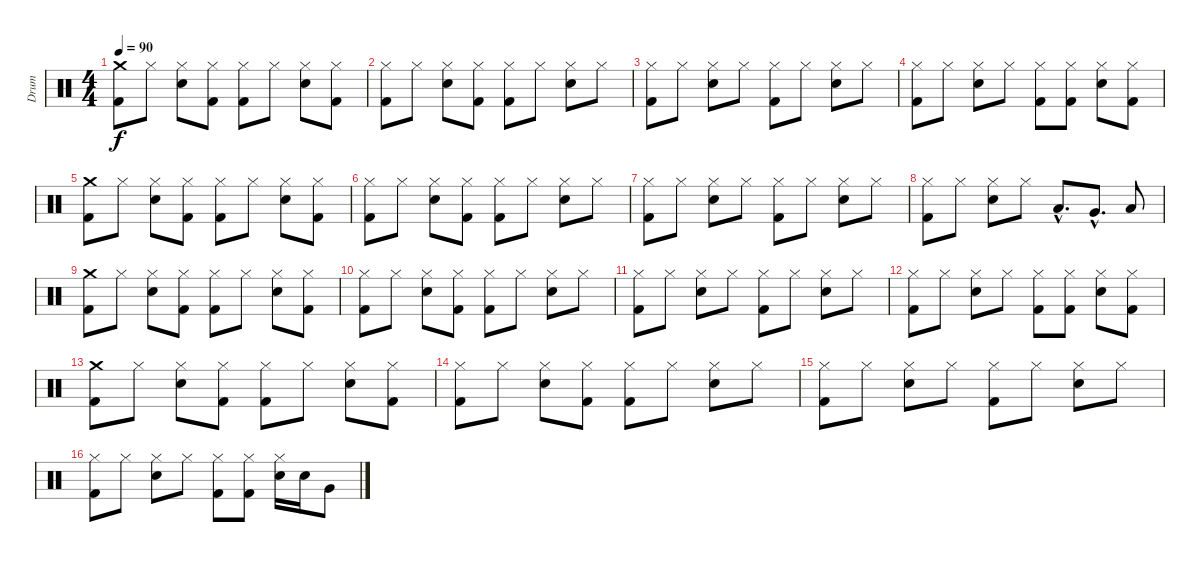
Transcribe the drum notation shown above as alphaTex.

\track ("Drum" "Drum") {instrument percussion}
\staff {score}
\articulation defaults
\ts (4 4)
\tempo 90
\clef neutral
\ks c
("Crash medium (hit)" "Kick (hit) 2").8{dy f} "Hi-Hat (closed)".8 ("Hi-Hat (closed)" "Snare (hit) 2").8 ("Hi-Hat (closed)" "Kick (hit) 2").8 ("Hi-Hat (closed)" "Kick (hit) 2").8 "Hi-Hat (closed)".8 ("Hi-Hat (closed)" "Snare (hit) 2").8 ("Hi-Hat (closed)" "Kick (hit) 2").8 |
("Hi-Hat (closed)" "Kick (hit) 2").8 "Hi-Hat (closed)".8 ("Hi-Hat (closed)" "Snare (hit) 2").8 ("Hi-Hat (closed)" "Kick (hit) 2").8 ("Hi-Hat (closed)" "Kick (hit) 2").8 "Hi-Hat (closed)".8 ("Hi-Hat (closed)" "Snare (hit) 2").8 "Hi-Hat (closed)".8 |
("Hi-Hat (closed)" "Kick (hit) 2").8 "Hi-Hat (closed)".8 ("Hi-Hat (closed)" "Snare (hit) 2").8 "Hi-Hat (closed)".8 ("Hi-Hat (closed)" "Kick (hit) 2").8 "Hi-Hat (closed)".8 ("Hi-Hat (closed)" "Snare (hit) 2").8 "Hi-Hat (closed)".8 |
("Hi-Hat (closed)" "Kick (hit) 2").8 "Hi-Hat (closed)".8 ("Hi-Hat (closed)" "Snare (hit) 2").8 "Hi-Hat (closed)".8 ("Hi-Hat (closed)" "Kick (hit) 2").8 ("Hi-Hat (closed)" "Kick (hit) 2").8 ("Hi-Hat (closed)" "Snare (hit) 2").8 ("Hi-Hat (closed)" "Kick (hit) 2").8 |
("Crash medium (hit)" "Kick (hit) 2").8 "Hi-Hat (closed)".8 ("Hi-Hat (closed)" "Snare (hit) 2").8 ("Hi-Hat (closed)" "Kick (hit) 2").8 ("Hi-Hat (closed)" "Kick (hit) 2").8 "Hi-Hat (closed)".8 ("Hi-Hat (closed)" "Snare (hit) 2").8 ("Hi-Hat (closed)" "Kick (hit) 2").8 |
("Hi-Hat (closed)" "Kick (hit) 2").8 "Hi-Hat (closed)".8 ("Hi-Hat (closed)" "Snare (hit) 2").8 ("Hi-Hat (closed)" "Kick (hit) 2").8 ("Hi-Hat (closed)" "Kick (hit) 2").8 "Hi-Hat (closed)".8 ("Hi-Hat (closed)" "Snare (hit) 2").8 "Hi-Hat (closed)".8 |
("Hi-Hat (closed)" "Kick (hit) 2").8 "Hi-Hat (closed)".8 ("Hi-Hat (closed)" "Snare (hit) 2").8 "Hi-Hat (closed)".8 ("Hi-Hat (closed)" "Kick (hit) 2").8 "Hi-Hat (closed)".8 ("Hi-Hat (closed)" "Snare (hit) 2").8 "Hi-Hat (closed)".8 |
("Hi-Hat (closed)" "Kick (hit) 2").8 "Hi-Hat (closed)".8 ("Hi-Hat (closed)" "Snare (hit) 2").8 "Hi-Hat (closed)".8 "Low Tom (hit)"{hac}.8{d} "Very Low Tom (hit)"{hac}.8{d} "Low Floor Tom (hit)".8 |
("Crash medium (hit)" "Kick (hit) 2").8 "Hi-Hat (closed)".8 ("Hi-Hat (closed)" "Snare (hit) 2").8 ("Hi-Hat (closed)" "Kick (hit) 2").8 ("Hi-Hat (closed)" "Kick (hit) 2").8 "Hi-Hat (closed)".8 ("Hi-Hat (closed)" "Snare (hit) 2").8 ("Hi-Hat (closed)" "Kick (hit) 2").8 |
("Hi-Hat (closed)" "Kick (hit) 2").8 "Hi-Hat (closed)".8 ("Hi-Hat (closed)" "Snare (hit) 2").8 ("Hi-Hat (closed)" "Kick (hit) 2").8 ("Hi-Hat (closed)" "Kick (hit) 2").8 "Hi-Hat (closed)".8 ("Hi-Hat (closed)" "Snare (hit) 2").8 "Hi-Hat (closed)".8 |
("Hi-Hat (closed)" "Kick (hit) 2").8 "Hi-Hat (closed)".8 ("Hi-Hat (closed)" "Snare (hit) 2").8 "Hi-Hat (closed)".8 ("Hi-Hat (closed)" "Kick (hit) 2").8 "Hi-Hat (closed)".8 ("Hi-Hat (closed)" "Snare (hit) 2").8 "Hi-Hat (closed)".8 |
("Hi-Hat (closed)" "Kick (hit) 2").8 "Hi-Hat (closed)".8 ("Hi-Hat (closed)" "Snare (hit) 2").8 "Hi-Hat (closed)".8 ("Hi-Hat (closed)" "Kick (hit) 2").8 ("Hi-Hat (closed)" "Kick (hit) 2").8 ("Hi-Hat (closed)" "Snare (hit) 2").8 ("Hi-Hat (closed)" "Kick (hit) 2").8 |
("Crash medium (hit)" "Kick (hit) 2").8 "Hi-Hat (closed)".8 ("Hi-Hat (closed)" "Snare (hit) 2").8 ("Hi-Hat (closed)" "Kick (hit) 2").8 ("Hi-Hat (closed)" "Kick (hit) 2").8 "Hi-Hat (closed)".8 ("Hi-Hat (closed)" "Snare (hit) 2").8 ("Hi-Hat (closed)" "Kick (hit) 2").8 |
("Hi-Hat (closed)" "Kick (hit) 2").8 "Hi-Hat (closed)".8 ("Hi-Hat (closed)" "Snare (hit) 2").8 ("Hi-Hat (closed)" "Kick (hit) 2").8 ("Hi-Hat (closed)" "Kick (hit) 2").8 "Hi-Hat (closed)".8 ("Hi-Hat (closed)" "Snare (hit) 2").8 "Hi-Hat (closed)".8 |
("Hi-Hat (closed)" "Kick (hit) 2").8 "Hi-Hat (closed)".8 ("Hi-Hat (closed)" "Snare (hit) 2").8 "Hi-Hat (closed)".8 ("Hi-Hat (closed)" "Kick (hit) 2").8 "Hi-Hat (closed)".8 ("Hi-Hat (closed)" "Snare (hit) 2").8 "Hi-Hat (closed)".8 |
("Hi-Hat (closed)" "Kick (hit) 2").8 "Hi-Hat (closed)".8 ("Hi-Hat (closed)" "Snare (hit) 2").8 "Hi-Hat (closed)".8 ("Hi-Hat (closed)" "Kick (hit) 2").8 ("Hi-Hat (closed)" "Kick (hit) 2").8 ("Hi-Hat (closed)" "Snare (hit) 2").16 "Snare (hit) 2".16 "Very Low Tom (hit)".8
